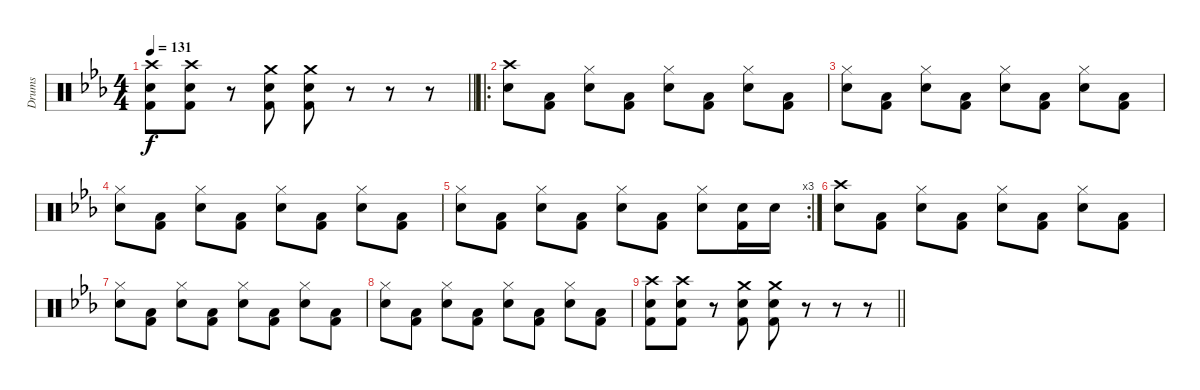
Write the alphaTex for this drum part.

\track ("Drums" "Drums") {instrument percussion}
\staff
\articulation defaults
\ts (4 4)
\tempo 131
\clef neutral
\barLineRight lightlight
\ks eb
("Crash high (hit)" "Snare (hit) 2" "Kick (hit) 2").8{dy f} ("Crash high (hit)" "Snare (hit) 2" "Kick (hit) 2").8 r.8 ("Crash medium (hit)" "Snare (hit) 2" "Kick (hit) 2").8 ("Crash medium (hit)" "Snare (hit) 2" "Kick (hit) 2").8 r.8 r.8 r.8 |
\ro
("Crash high (hit)" "Snare (hit) 2").8 ("Low Floor Tom (hit)" "Kick (hit) 2").8 ("Snare (hit) 2" "Hi-Hat (closed)").8 ("Low Floor Tom (hit)" "Kick (hit) 2").8 ("Snare (hit) 2" "Hi-Hat (closed)").8 ("Low Floor Tom (hit)" "Kick (hit) 2").8 ("Snare (hit) 2" "Hi-Hat (closed)").8 ("Low Floor Tom (hit)" "Kick (hit) 2").8 |
("Snare (hit) 2" "Hi-Hat (closed)").8 ("Low Floor Tom (hit)" "Kick (hit) 2").8 ("Snare (hit) 2" "Hi-Hat (closed)").8 ("Low Floor Tom (hit)" "Kick (hit) 2").8 ("Snare (hit) 2" "Hi-Hat (closed)").8 ("Low Floor Tom (hit)" "Kick (hit) 2").8 ("Snare (hit) 2" "Hi-Hat (closed)").8 ("Low Floor Tom (hit)" "Kick (hit) 2").8 |
("Snare (hit) 2" "Hi-Hat (closed)").8 ("Low Floor Tom (hit)" "Kick (hit) 2").8 ("Snare (hit) 2" "Hi-Hat (closed)").8 ("Low Floor Tom (hit)" "Kick (hit) 2").8 ("Snare (hit) 2" "Hi-Hat (closed)").8 ("Low Floor Tom (hit)" "Kick (hit) 2").8 ("Snare (hit) 2" "Hi-Hat (closed)").8 ("Low Floor Tom (hit)" "Kick (hit) 2").8 |
\rc 3
("Snare (hit) 2" "Hi-Hat (closed)").8 ("Low Floor Tom (hit)" "Kick (hit) 2").8 ("Snare (hit) 2" "Hi-Hat (closed)").8 ("Low Floor Tom (hit)" "Kick (hit) 2").8 ("Snare (hit) 2" "Hi-Hat (closed)").8 ("Low Floor Tom (hit)" "Kick (hit) 2").8 ("Snare (hit) 2" "Hi-Hat (closed)").8 ("Snare (hit) 2" "Kick (hit) 2").16 "Snare (hit) 2".16 |
("Crash high (hit)" "Snare (hit) 2").8 ("Low Floor Tom (hit)" "Kick (hit) 2").8 ("Snare (hit) 2" "Hi-Hat (closed)").8 ("Low Floor Tom (hit)" "Kick (hit) 2").8 ("Snare (hit) 2" "Hi-Hat (closed)").8 ("Low Floor Tom (hit)" "Kick (hit) 2").8 ("Snare (hit) 2" "Hi-Hat (closed)").8 ("Low Floor Tom (hit)" "Kick (hit) 2").8 |
("Snare (hit) 2" "Hi-Hat (closed)").8 ("Low Floor Tom (hit)" "Kick (hit) 2").8 ("Snare (hit) 2" "Hi-Hat (closed)").8 ("Low Floor Tom (hit)" "Kick (hit) 2").8 ("Snare (hit) 2" "Hi-Hat (closed)").8 ("Low Floor Tom (hit)" "Kick (hit) 2").8 ("Snare (hit) 2" "Hi-Hat (closed)").8 ("Low Floor Tom (hit)" "Kick (hit) 2").8 |
("Snare (hit) 2" "Hi-Hat (closed)").8 ("Low Floor Tom (hit)" "Kick (hit) 2").8 ("Snare (hit) 2" "Hi-Hat (closed)").8 ("Low Floor Tom (hit)" "Kick (hit) 2").8 ("Snare (hit) 2" "Hi-Hat (closed)").8 ("Low Floor Tom (hit)" "Kick (hit) 2").8 ("Snare (hit) 2" "Hi-Hat (closed)").8 ("Low Floor Tom (hit)" "Kick (hit) 2").8 |
\barLineRight lightlight
("Crash high (hit)" "Snare (hit) 2" "Kick (hit) 2").8 ("Crash high (hit)" "Snare (hit) 2" "Kick (hit) 2").8 r.8 ("Crash medium (hit)" "Snare (hit) 2" "Kick (hit) 2").8 ("Crash medium (hit)" "Snare (hit) 2" "Kick (hit) 2").8 r.8 r.8 r.8
